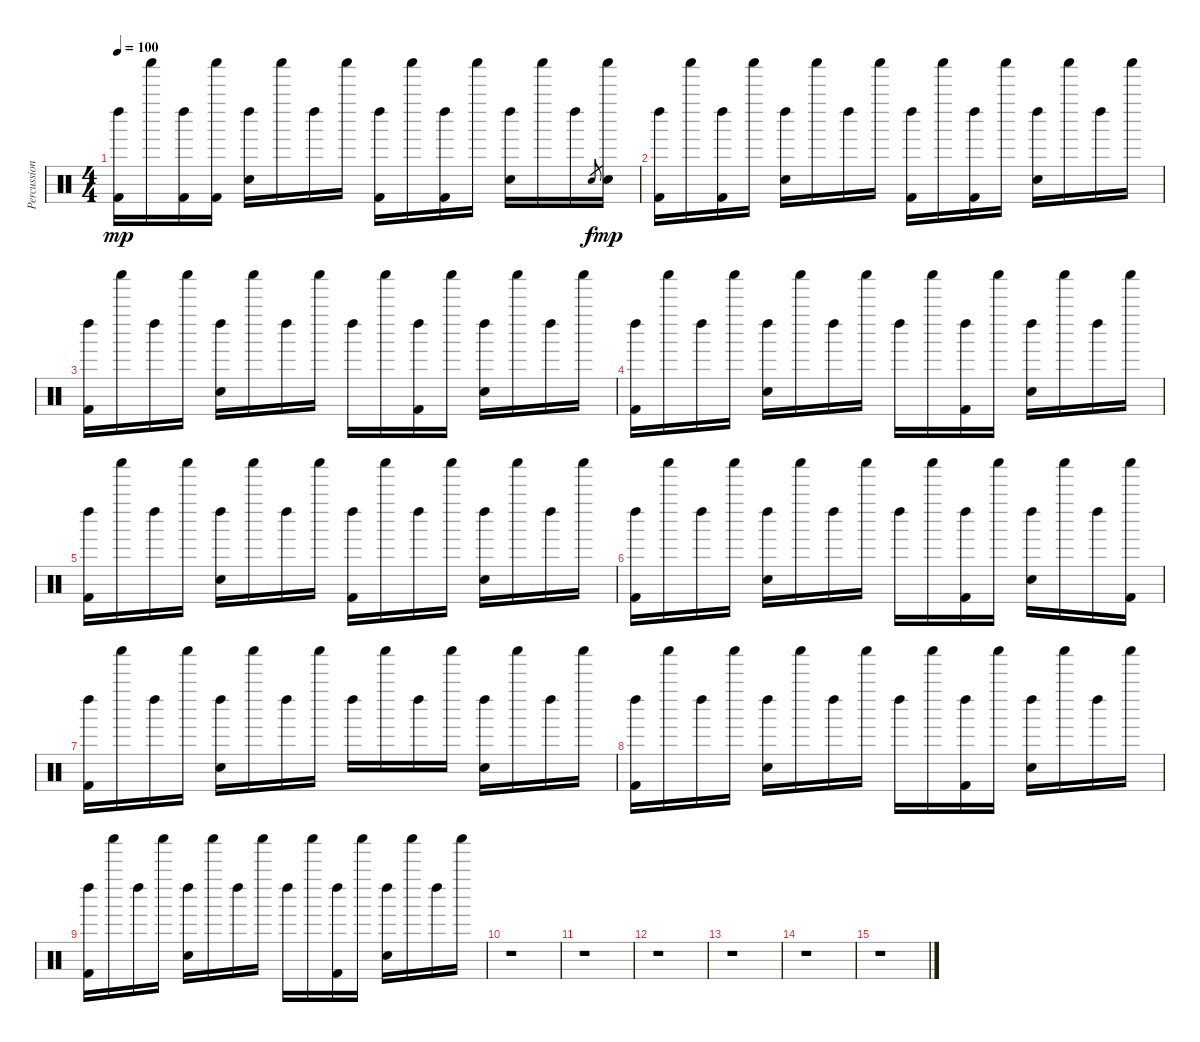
\track ("Percussion" "Percussion") {instrument percussion}
\staff {score}
\articulation defaults
\ts (4 4)
\tempo 100
\clef neutral
\ks c
("Kick (hit) 2" "Left Maraca (hit)").16{dy mp} "Shaker (hit)".16 ("Kick (hit) 2" "Left Maraca (hit)").16 ("Kick (hit) 2" "Shaker (hit)").16 ("Snare (hit) 2" "Left Maraca (hit)").16 "Shaker (hit)".16 "Left Maraca (hit)".16 "Shaker (hit)".16 ("Kick (hit) 2" "Left Maraca (hit)").16 "Shaker (hit)".16 ("Kick (hit) 2" "Left Maraca (hit)").16 "Shaker (hit)".16 ("Snare (hit) 2" "Left Maraca (hit)").16 "Shaker (hit)".16 "Left Maraca (hit)".16 "Snare (hit) 2".8{gr dy f} ("Snare (hit) 2" "Shaker (hit)").16{dy mp} |
("Kick (hit) 2" "Left Maraca (hit)").16 "Shaker (hit)".16 ("Kick (hit) 2" "Left Maraca (hit)").16 "Shaker (hit)".16 ("Snare (hit) 2" "Left Maraca (hit)").16 "Shaker (hit)".16 "Left Maraca (hit)".16 "Shaker (hit)".16 ("Kick (hit) 2" "Left Maraca (hit)").16 "Shaker (hit)".16 ("Kick (hit) 2" "Left Maraca (hit)").16 "Shaker (hit)".16 ("Snare (hit) 2" "Left Maraca (hit)").16 "Shaker (hit)".16 "Left Maraca (hit)".16 "Shaker (hit)".16 |
("Kick (hit) 2" "Left Maraca (hit)").16 "Shaker (hit)".16 "Left Maraca (hit)".16 "Shaker (hit)".16 ("Snare (hit) 2" "Left Maraca (hit)").16 "Shaker (hit)".16 "Left Maraca (hit)".16 "Shaker (hit)".16 "Left Maraca (hit)".16 "Shaker (hit)".16 ("Kick (hit) 2" "Left Maraca (hit)").16 "Shaker (hit)".16 ("Snare (hit) 2" "Left Maraca (hit)").16 "Shaker (hit)".16 "Left Maraca (hit)".16 "Shaker (hit)".16 |
("Kick (hit) 2" "Left Maraca (hit)").16 "Shaker (hit)".16 "Left Maraca (hit)".16 "Shaker (hit)".16 ("Snare (hit) 2" "Left Maraca (hit)").16 "Shaker (hit)".16 "Left Maraca (hit)".16 "Shaker (hit)".16 "Left Maraca (hit)".16 "Shaker (hit)".16 ("Kick (hit) 2" "Left Maraca (hit)").16 "Shaker (hit)".16 ("Snare (hit) 2" "Left Maraca (hit)").16 "Shaker (hit)".16 "Left Maraca (hit)".16 "Shaker (hit)".16 |
("Kick (hit) 2" "Left Maraca (hit)").16 "Shaker (hit)".16 "Left Maraca (hit)".16 "Shaker (hit)".16 ("Snare (hit) 2" "Left Maraca (hit)").16 "Shaker (hit)".16 "Left Maraca (hit)".16 "Shaker (hit)".16 ("Kick (hit) 2" "Left Maraca (hit)").16 "Shaker (hit)".16 "Left Maraca (hit)".16 "Shaker (hit)".16 ("Snare (hit) 2" "Left Maraca (hit)").16 "Shaker (hit)".16 "Left Maraca (hit)".16 "Shaker (hit)".16 |
("Kick (hit) 2" "Left Maraca (hit)").16 "Shaker (hit)".16 "Left Maraca (hit)".16 "Shaker (hit)".16 ("Snare (hit) 2" "Left Maraca (hit)").16 "Shaker (hit)".16 "Left Maraca (hit)".16 "Shaker (hit)".16 "Left Maraca (hit)".16 "Shaker (hit)".16 ("Kick (hit) 2" "Left Maraca (hit)").16 "Shaker (hit)".16 ("Snare (hit) 2" "Left Maraca (hit)").16 "Shaker (hit)".16 "Left Maraca (hit)".16 ("Kick (hit) 2" "Shaker (hit)").16 |
("Kick (hit) 2" "Left Maraca (hit)").16 "Shaker (hit)".16 "Left Maraca (hit)".16 "Shaker (hit)".16 ("Snare (hit) 2" "Left Maraca (hit)").16 "Shaker (hit)".16 "Left Maraca (hit)".16 "Shaker (hit)".16 "Left Maraca (hit)".16 "Shaker (hit)".16 "Left Maraca (hit)".16 "Shaker (hit)".16 ("Snare (hit) 2" "Left Maraca (hit)").16 "Shaker (hit)".16 "Left Maraca (hit)".16 "Shaker (hit)".16 |
("Kick (hit) 2" "Left Maraca (hit)").16 "Shaker (hit)".16 "Left Maraca (hit)".16 "Shaker (hit)".16 ("Snare (hit) 2" "Left Maraca (hit)").16 "Shaker (hit)".16 "Left Maraca (hit)".16 "Shaker (hit)".16 "Left Maraca (hit)".16 "Shaker (hit)".16 ("Kick (hit) 2" "Left Maraca (hit)").16 "Shaker (hit)".16 ("Snare (hit) 2" "Left Maraca (hit)").16 "Shaker (hit)".16 "Left Maraca (hit)".16 "Shaker (hit)".16 |
("Kick (hit) 2" "Left Maraca (hit)").16{volume 5} "Shaker (hit)".16 "Left Maraca (hit)".16 "Shaker (hit)".16 ("Snare (hit) 2" "Left Maraca (hit)").16 "Shaker (hit)".16 "Left Maraca (hit)".16 "Shaker (hit)".16 "Left Maraca (hit)".16 "Shaker (hit)".16 ("Kick (hit) 2" "Left Maraca (hit)").16 "Shaker (hit)".16 ("Snare (hit) 2" "Left Maraca (hit)").16 "Shaker (hit)".16 "Left Maraca (hit)".16 "Shaker (hit)".16 |
r.1 |
r.1 |
r.1 |
r.1 |
r.1 |
r.1
